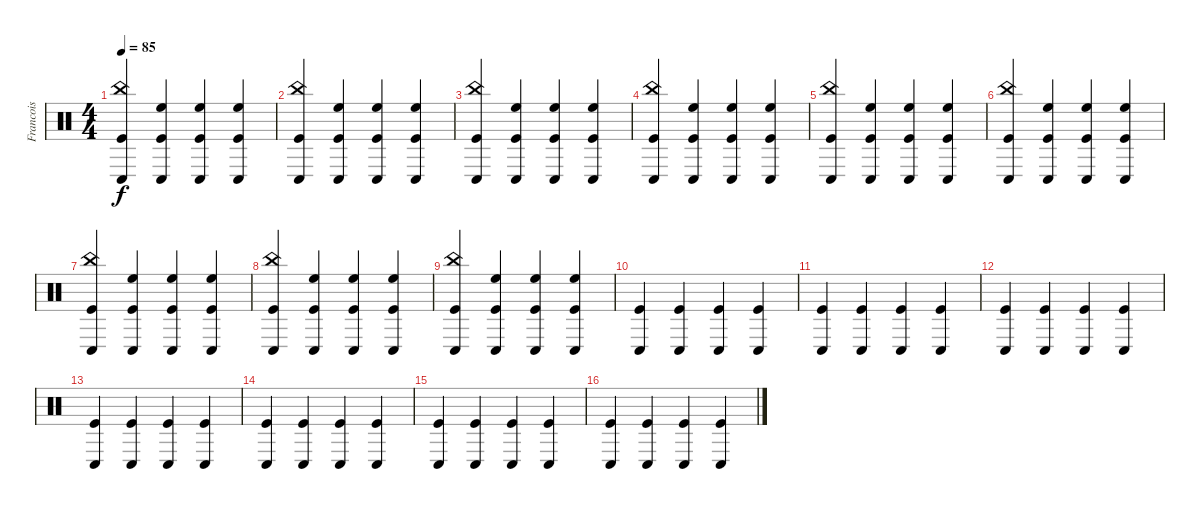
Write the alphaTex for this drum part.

\track ("Francois" "Francois") {instrument percussion}
\staff {score}
\articulation defaults
\ts (4 4)
\tempo 85
\clef neutral
\ks c
("China (hit)" "Kick (hit)" "Conga low (hit)").4{dy f} ("High Floor Tom (hit)" "Kick (hit)" "Conga low (hit)").4 ("High Floor Tom (hit)" "Kick (hit)" "Conga low (hit)").4 ("High Floor Tom (hit)" "Kick (hit)" "Conga low (hit)").4 |
("China (hit)" "Kick (hit)" "Conga low (hit)").4 ("High Floor Tom (hit)" "Kick (hit)" "Conga low (hit)").4 ("High Floor Tom (hit)" "Kick (hit)" "Conga low (hit)").4 ("High Floor Tom (hit)" "Kick (hit)" "Conga low (hit)").4 |
("China (hit)" "Kick (hit)" "Conga low (hit)").4 ("High Floor Tom (hit)" "Kick (hit)" "Conga low (hit)").4 ("High Floor Tom (hit)" "Kick (hit)" "Conga low (hit)").4 ("High Floor Tom (hit)" "Kick (hit)" "Conga low (hit)").4 |
("China (hit)" "Kick (hit)" "Conga low (hit)").4 ("High Floor Tom (hit)" "Kick (hit)" "Conga low (hit)").4 ("High Floor Tom (hit)" "Kick (hit)" "Conga low (hit)").4 ("High Floor Tom (hit)" "Kick (hit)" "Conga low (hit)").4 |
("China (hit)" "Kick (hit)" "Conga low (hit)").4 ("High Floor Tom (hit)" "Kick (hit)" "Conga low (hit)").4 ("High Floor Tom (hit)" "Kick (hit)" "Conga low (hit)").4 ("High Floor Tom (hit)" "Kick (hit)" "Conga low (hit)").4 |
("China (hit)" "Kick (hit)" "Conga low (hit)").4 ("High Floor Tom (hit)" "Kick (hit)" "Conga low (hit)").4 ("High Floor Tom (hit)" "Kick (hit)" "Conga low (hit)").4 ("High Floor Tom (hit)" "Kick (hit)" "Conga low (hit)").4 |
("China (hit)" "Kick (hit)" "Conga low (hit)").4 ("High Floor Tom (hit)" "Kick (hit)" "Conga low (hit)").4 ("High Floor Tom (hit)" "Kick (hit)" "Conga low (hit)").4 ("High Floor Tom (hit)" "Kick (hit)" "Conga low (hit)").4 |
("China (hit)" "Kick (hit)" "Conga low (hit)").4 ("High Floor Tom (hit)" "Kick (hit)" "Conga low (hit)").4 ("High Floor Tom (hit)" "Kick (hit)" "Conga low (hit)").4 ("High Floor Tom (hit)" "Kick (hit)" "Conga low (hit)").4 |
("China (hit)" "Kick (hit)" "Conga low (hit)").4 ("High Floor Tom (hit)" "Kick (hit)" "Conga low (hit)").4 ("High Floor Tom (hit)" "Kick (hit)" "Conga low (hit)").4 ("High Floor Tom (hit)" "Kick (hit)" "Conga low (hit)").4 |
("Kick (hit)" "Conga low (hit)").4 ("Kick (hit)" "Conga low (hit)").4 ("Kick (hit)" "Conga low (hit)").4 ("Kick (hit)" "Conga low (hit)").4 |
("Kick (hit)" "Conga low (hit)").4 ("Kick (hit)" "Conga low (hit)").4 ("Kick (hit)" "Conga low (hit)").4 ("Kick (hit)" "Conga low (hit)").4 |
("Kick (hit)" "Conga low (hit)").4 ("Kick (hit)" "Conga low (hit)").4 ("Kick (hit)" "Conga low (hit)").4 ("Kick (hit)" "Conga low (hit)").4 |
("Kick (hit)" "Conga low (hit)").4 ("Kick (hit)" "Conga low (hit)").4 ("Kick (hit)" "Conga low (hit)").4 ("Kick (hit)" "Conga low (hit)").4 |
("Kick (hit)" "Conga low (hit)").4 ("Kick (hit)" "Conga low (hit)").4 ("Kick (hit)" "Conga low (hit)").4 ("Kick (hit)" "Conga low (hit)").4 |
("Kick (hit)" "Conga low (hit)").4 ("Kick (hit)" "Conga low (hit)").4 ("Kick (hit)" "Conga low (hit)").4 ("Kick (hit)" "Conga low (hit)").4 |
("Kick (hit)" "Conga low (hit)").4 ("Kick (hit)" "Conga low (hit)").4 ("Kick (hit)" "Conga low (hit)").4 ("Kick (hit)" "Conga low (hit)").4
